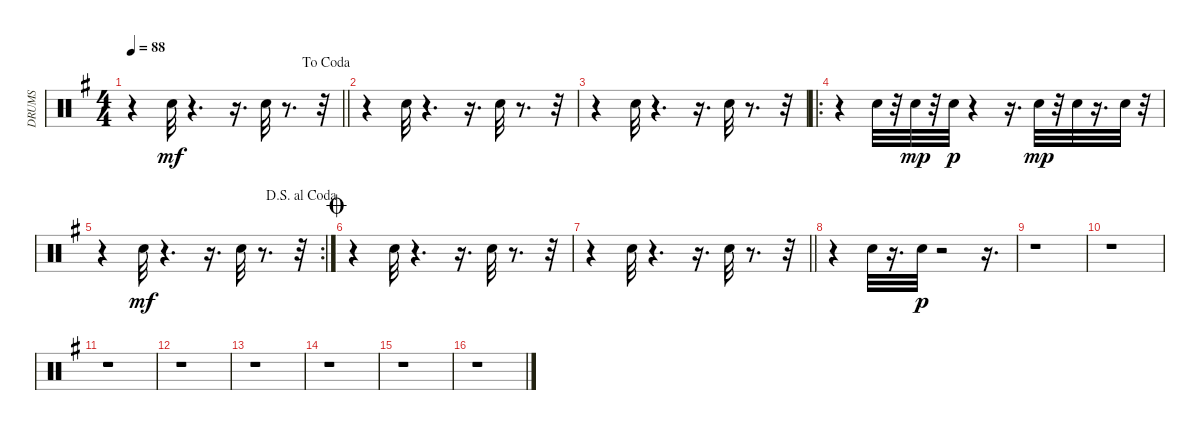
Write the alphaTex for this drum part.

\track ("DRUMS" "DRUMS") {instrument percussion}
\staff {score}
\articulation defaults
\ts (4 4)
\jump dacoda
\tempo 88
\clef neutral
\barLineRight lightlight
\ks g
r.4{dy mp} "Snare (hit) 2".32{dy mf} r.4{d} r.16{d} "Snare (hit) 2".32 r.8{d} r.32 |
r.4 "Snare (hit) 2".32 r.4{d} r.16{d} "Snare (hit) 2".32 r.8{d} r.32 |
r.4 "Snare (hit) 2".32 r.4{d} r.16{d} "Snare (hit) 2".32 r.8{d} r.32 |
\ro
r.4 "Snare (hit) 2".32 r.32 "Snare (hit) 2".32{dy mp} r.32 "Snare (hit) 2".32{dy p} r.4 r.16{d} "Snare (hit) 2".32{dy mp} r.32 "Snare (hit) 2".32 r.16{d} "Snare (hit) 2".32 r.32 |
\rc 2
\jump dalsegnoalcoda
r.4 "Snare (hit) 2".32{dy mf} r.4{d} r.16{d} "Snare (hit) 2".32 r.8{d} r.32 |
\jump coda
r.4 "Snare (hit) 2".32 r.4{d} r.16{d} "Snare (hit) 2".32 r.8{d} r.32 |
\barLineRight lightlight
r.4 "Snare (hit) 2".32 r.4{d} r.16{d} "Snare (hit) 2".32 r.8{d} r.32 |
r.4 "Snare (hit) 2".32 r.16{d} "Snare (hit) 2".32{dy p} r.2 r.16{d} |
r.1 |
r.1 |
r.1 |
r.1 |
r.1 |
r.1 |
r.1 |
r.1
